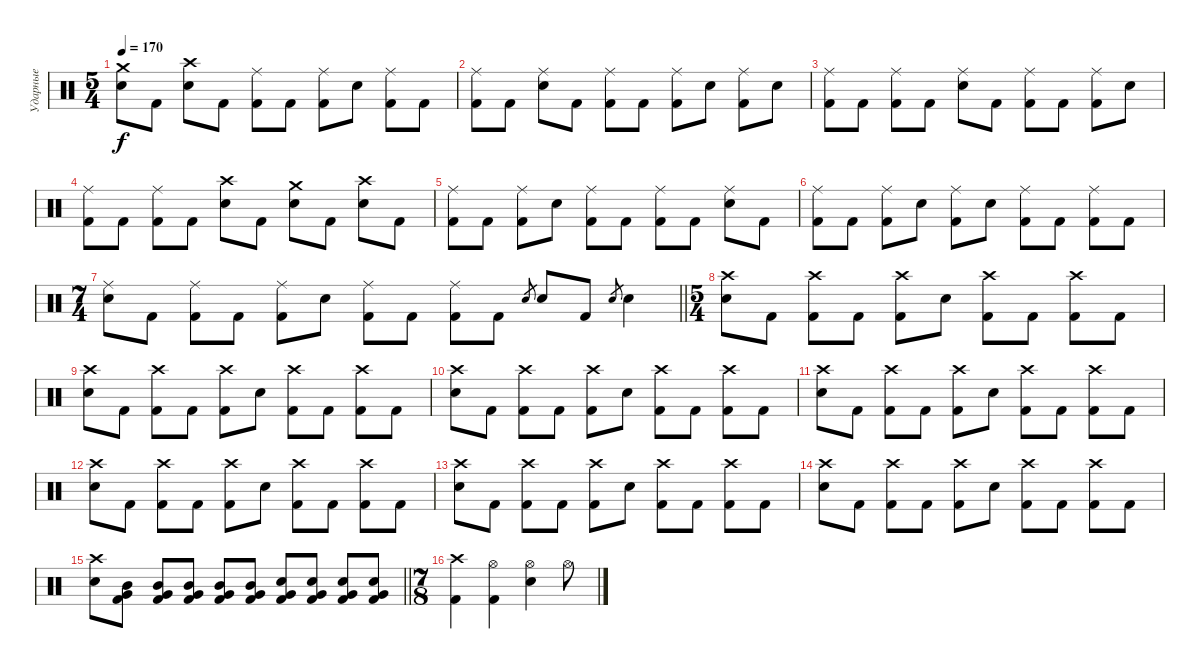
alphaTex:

\track ("Ударные" "Ударные") {instrument percussion}
\staff {score}
\articulation defaults
\ts (5 4)
\tempo 170
\clef neutral
\ks c
("Crash medium (hit)" "Electric Snare (hit)").8{dy f} "Kick (hit) 2".8 ("Crash high (hit)" "Electric Snare (hit)").8 "Kick (hit) 2".8 ("Ride (middle)" "Kick (hit) 2").8 "Kick (hit) 2".8 ("Ride (middle)" "Kick (hit) 2").8 "Electric Snare (hit)".8 ("Ride (middle)" "Kick (hit) 2").8 "Kick (hit) 2".8 |
("Ride (middle)" "Kick (hit) 2").8 "Kick (hit) 2".8 ("Ride (middle)" "Electric Snare (hit)").8 "Kick (hit) 2".8 ("Ride (middle)" "Kick (hit) 2").8 "Kick (hit) 2".8 ("Ride (middle)" "Kick (hit) 2").8 "Electric Snare (hit)".8 ("Ride (middle)" "Kick (hit) 2").8 "Electric Snare (hit)".8 |
("Ride (middle)" "Kick (hit) 2").8 "Kick (hit) 2".8 ("Ride (middle)" "Kick (hit) 2").8 "Kick (hit) 2".8 ("Ride (middle)" "Electric Snare (hit)").8 "Kick (hit) 2".8 ("Ride (middle)" "Kick (hit) 2").8 "Kick (hit) 2".8 ("Ride (middle)" "Kick (hit) 2").8 "Electric Snare (hit)".8 |
("Ride (middle)" "Kick (hit) 2").8 "Kick (hit) 2".8 ("Ride (middle)" "Kick (hit) 2").8 "Kick (hit) 2".8 ("Crash high (hit)" "Electric Snare (hit)").8 "Kick (hit) 2".8 ("Crash medium (hit)" "Electric Snare (hit)").8 "Kick (hit) 2".8 ("Crash high (hit)" "Electric Snare (hit)").8 "Kick (hit) 2".8 |
("Ride (middle)" "Kick (hit) 2").8 "Kick (hit) 2".8 ("Ride (middle)" "Kick (hit) 2").8 "Electric Snare (hit)".8 ("Ride (middle)" "Kick (hit) 2").8 "Kick (hit) 2".8 ("Ride (middle)" "Kick (hit) 2").8 "Kick (hit) 2".8 ("Ride (middle)" "Electric Snare (hit)").8 "Kick (hit) 2".8 |
("Ride (middle)" "Kick (hit) 2").8 "Kick (hit) 2".8 ("Ride (middle)" "Kick (hit) 2").8 "Electric Snare (hit)".8 ("Ride (middle)" "Kick (hit) 2").8 "Electric Snare (hit)".8 ("Ride (middle)" "Kick (hit) 2").8 "Kick (hit) 2".8 ("Ride (middle)" "Kick (hit) 2").8 "Kick (hit) 2".8 |
\ts (7 4)
\barLineRight lightlight
("Ride (middle)" "Electric Snare (hit)").8 "Kick (hit) 2".8 ("Ride (middle)" "Kick (hit) 2").8 "Kick (hit) 2".8 ("Ride (middle)" "Kick (hit) 2").8 "Electric Snare (hit)".8 ("Ride (middle)" "Kick (hit) 2").8 "Kick (hit) 2".8 ("Ride (middle)" "Kick (hit) 2").8 "Kick (hit) 2".8 "Electric Snare (hit)".8{gr} "Electric Snare (hit)".8 "Kick (hit) 2".8 "Electric Snare (hit)".8{gr} "Electric Snare (hit)".4 |
\ts (5 4)
("Crash high (hit)" "Electric Snare (hit)").8 "Kick (hit) 2".8 ("Crash high (hit)" "Kick (hit) 2").8 "Kick (hit) 2".8 ("Crash high (hit)" "Kick (hit) 2").8 "Electric Snare (hit)".8 ("Crash high (hit)" "Kick (hit) 2").8 "Kick (hit) 2".8 ("Crash high (hit)" "Kick (hit) 2").8 "Kick (hit) 2".8 |
("Crash high (hit)" "Electric Snare (hit)").8 "Kick (hit) 2".8 ("Crash high (hit)" "Kick (hit) 2").8 "Kick (hit) 2".8 ("Crash high (hit)" "Kick (hit) 2").8 "Electric Snare (hit)".8 ("Crash high (hit)" "Kick (hit) 2").8 "Kick (hit) 2".8 ("Crash high (hit)" "Kick (hit) 2").8 "Kick (hit) 2".8 |
("Crash high (hit)" "Electric Snare (hit)").8 "Kick (hit) 2".8 ("Crash high (hit)" "Kick (hit) 2").8 "Kick (hit) 2".8 ("Crash high (hit)" "Kick (hit) 2").8 "Electric Snare (hit)".8 ("Crash high (hit)" "Kick (hit) 2").8 "Kick (hit) 2".8 ("Crash high (hit)" "Kick (hit) 2").8 "Kick (hit) 2".8 |
("Crash high (hit)" "Electric Snare (hit)").8 "Kick (hit) 2".8 ("Crash high (hit)" "Kick (hit) 2").8 "Kick (hit) 2".8 ("Crash high (hit)" "Kick (hit) 2").8 "Electric Snare (hit)".8 ("Crash high (hit)" "Kick (hit) 2").8 "Kick (hit) 2".8 ("Crash high (hit)" "Kick (hit) 2").8 "Kick (hit) 2".8 |
("Crash high (hit)" "Electric Snare (hit)").8 "Kick (hit) 2".8 ("Crash high (hit)" "Kick (hit) 2").8 "Kick (hit) 2".8 ("Crash high (hit)" "Kick (hit) 2").8 "Electric Snare (hit)".8 ("Crash high (hit)" "Kick (hit) 2").8 "Kick (hit) 2".8 ("Crash high (hit)" "Kick (hit) 2").8 "Kick (hit) 2".8 |
("Crash high (hit)" "Electric Snare (hit)").8 "Kick (hit) 2".8 ("Crash high (hit)" "Kick (hit) 2").8 "Kick (hit) 2".8 ("Crash high (hit)" "Kick (hit) 2").8 "Electric Snare (hit)".8 ("Crash high (hit)" "Kick (hit) 2").8 "Kick (hit) 2".8 ("Crash high (hit)" "Kick (hit) 2").8 "Kick (hit) 2".8 |
("Crash high (hit)" "Electric Snare (hit)").8 "Kick (hit) 2".8 ("Crash high (hit)" "Kick (hit) 2").8 "Kick (hit) 2".8 ("Crash high (hit)" "Kick (hit) 2").8 "Electric Snare (hit)".8 ("Crash high (hit)" "Kick (hit) 2").8 "Kick (hit) 2".8 ("Crash high (hit)" "Kick (hit) 2").8 "Kick (hit) 2".8 |
\barLineRight lightlight
("Crash high (hit)" "Electric Snare (hit)").8 ("Mid Tom (hit)" "Very Low Tom (hit)" "Kick (hit) 2").8 ("Mid Tom (hit)" "Very Low Tom (hit)" "Kick (hit) 2").8 ("Mid Tom (hit)" "Very Low Tom (hit)" "Kick (hit) 2").8 ("Mid Tom (hit)" "Very Low Tom (hit)" "Kick (hit) 2").8 ("Mid Tom (hit)" "Very Low Tom (hit)" "Kick (hit) 2").8 ("Electric Snare (hit)" "Very Low Tom (hit)" "Kick (hit) 2").8 ("Electric Snare (hit)" "Very Low Tom (hit)" "Kick (hit) 2").8 ("Electric Snare (hit)" "Very Low Tom (hit)" "Kick (hit) 2").8 ("Electric Snare (hit)" "Very Low Tom (hit)" "Kick (hit) 2").8 |
\ts (7 8)
("Crash high (hit)" "Kick (hit) 2").4 ("Hi-Hat (open)" "Kick (hit) 2").4 ("Hi-Hat (open)" "Electric Snare (hit)").4 "Hi-Hat (open)".8
